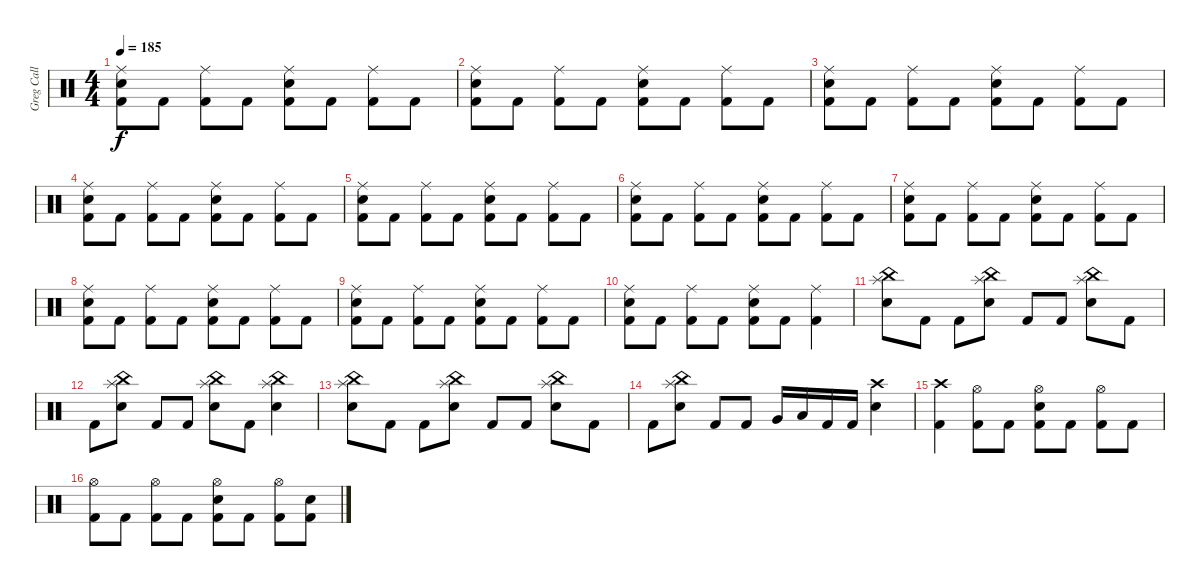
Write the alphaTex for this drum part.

\track ("Greg Call (Drums)" "Greg Call ") {instrument percussion}
\staff {score}
\articulation defaults
\ts (4 4)
\tempo 185
\clef neutral
\ks c
("Ride (middle)" "Snare (hit) 2" "Kick (hit) 2").8{dy f} "Kick (hit) 2".8 ("Ride (middle)" "Kick (hit) 2").8 "Kick (hit) 2".8 ("Ride (middle)" "Snare (hit) 2" "Kick (hit) 2").8 "Kick (hit) 2".8 ("Ride (middle)" "Kick (hit) 2").8 "Kick (hit) 2".8 |
("Ride (middle)" "Snare (hit) 2" "Kick (hit) 2").8 "Kick (hit) 2".8 ("Ride (middle)" "Kick (hit) 2").8 "Kick (hit) 2".8 ("Ride (middle)" "Snare (hit) 2" "Kick (hit) 2").8 "Kick (hit) 2".8 ("Ride (middle)" "Kick (hit) 2").8 "Kick (hit) 2".8 |
("Ride (middle)" "Snare (hit) 2" "Kick (hit) 2").8 "Kick (hit) 2".8 ("Ride (middle)" "Kick (hit) 2").8 "Kick (hit) 2".8 ("Ride (middle)" "Snare (hit) 2" "Kick (hit) 2").8 "Kick (hit) 2".8 ("Ride (middle)" "Kick (hit) 2").8 "Kick (hit) 2".8 |
("Ride (middle)" "Snare (hit) 2" "Kick (hit) 2").8 "Kick (hit) 2".8 ("Ride (middle)" "Kick (hit) 2").8 "Kick (hit) 2".8 ("Ride (middle)" "Snare (hit) 2" "Kick (hit) 2").8 "Kick (hit) 2".8 ("Ride (middle)" "Kick (hit) 2").8 "Kick (hit) 2".8 |
("Ride (middle)" "Snare (hit) 2" "Kick (hit) 2").8 "Kick (hit) 2".8 ("Ride (middle)" "Kick (hit) 2").8 "Kick (hit) 2".8 ("Ride (middle)" "Snare (hit) 2" "Kick (hit) 2").8 "Kick (hit) 2".8 ("Ride (middle)" "Kick (hit) 2").8 "Kick (hit) 2".8 |
("Ride (middle)" "Snare (hit) 2" "Kick (hit) 2").8 "Kick (hit) 2".8 ("Ride (middle)" "Kick (hit) 2").8 "Kick (hit) 2".8 ("Ride (middle)" "Snare (hit) 2" "Kick (hit) 2").8 "Kick (hit) 2".8 ("Ride (middle)" "Kick (hit) 2").8 "Kick (hit) 2".8 |
("Ride (middle)" "Snare (hit) 2" "Kick (hit) 2").8 "Kick (hit) 2".8 ("Ride (middle)" "Kick (hit) 2").8 "Kick (hit) 2".8 ("Ride (middle)" "Snare (hit) 2" "Kick (hit) 2").8 "Kick (hit) 2".8 ("Ride (middle)" "Kick (hit) 2").8 "Kick (hit) 2".8 |
("Ride (middle)" "Snare (hit) 2" "Kick (hit) 2").8 "Kick (hit) 2".8 ("Ride (middle)" "Kick (hit) 2").8 "Kick (hit) 2".8 ("Ride (middle)" "Snare (hit) 2" "Kick (hit) 2").8 "Kick (hit) 2".8 ("Ride (middle)" "Kick (hit) 2").8 "Kick (hit) 2".8 |
("Ride (middle)" "Snare (hit) 2" "Kick (hit) 2").8 "Kick (hit) 2".8 ("Ride (middle)" "Kick (hit) 2").8 "Kick (hit) 2".8 ("Ride (middle)" "Snare (hit) 2" "Kick (hit) 2").8 "Kick (hit) 2".8 ("Ride (middle)" "Kick (hit) 2").8 "Kick (hit) 2".8 |
("Ride (middle)" "Snare (hit) 2" "Kick (hit) 2").8 "Kick (hit) 2".8 ("Ride (middle)" "Kick (hit) 2").8 "Kick (hit) 2".8 ("Ride (middle)" "Snare (hit) 2" "Kick (hit) 2").8 "Kick (hit) 2".8 ("Ride (middle)" "Kick (hit) 2").4 |
("Splash (hit)" "China (hit)" "Snare (hit) 2").8 "Kick (hit) 2".8 "Kick (hit) 2".8 ("Splash (hit)" "China (hit)" "Snare (hit) 2").8 "Kick (hit) 2".8 "Kick (hit) 2".8 ("Splash (hit)" "China (hit)" "Snare (hit) 2").8 "Kick (hit) 2".8 |
"Kick (hit) 2".8 ("Splash (hit)" "China (hit)" "Snare (hit) 2").8 "Kick (hit) 2".8 "Kick (hit) 2".8 ("Splash (hit)" "China (hit)" "Snare (hit) 2").8 "Kick (hit) 2".8 ("Splash (hit)" "China (hit)" "Snare (hit) 2").4 |
("Splash (hit)" "China (hit)" "Snare (hit) 2").8 "Kick (hit) 2".8 "Kick (hit) 2".8 ("Splash (hit)" "China (hit)" "Snare (hit) 2").8 "Kick (hit) 2".8 "Kick (hit) 2".8 ("Splash (hit)" "China (hit)" "Snare (hit) 2").8 "Kick (hit) 2".8 |
"Kick (hit) 2".8 ("Splash (hit)" "China (hit)" "Snare (hit) 2").8 "Kick (hit) 2".8 "Kick (hit) 2".8 "Very Low Tom (hit)".16 "Low Floor Tom (hit)".16 "Kick (hit) 2".16 "Kick (hit) 2".16 ("Crash high (hit)" "Snare (hit) 2").4 |
("Crash high (hit)" "Kick (hit) 2").4 ("Hi-Hat (open)" "Kick (hit) 2").8 "Kick (hit) 2".8 ("Snare (hit) 2" "Hi-Hat (open)" "Kick (hit) 2").8 "Kick (hit) 2".8 ("Hi-Hat (open)" "Kick (hit) 2").8 "Kick (hit) 2".8 |
("Hi-Hat (open)" "Kick (hit) 2").8 "Kick (hit) 2".8 ("Hi-Hat (open)" "Kick (hit) 2").8 "Kick (hit) 2".8 ("Snare (hit) 2" "Hi-Hat (open)" "Kick (hit) 2").8 "Kick (hit) 2".8 ("Hi-Hat (open)" "Kick (hit) 2").8 ("Snare (hit) 2" "Kick (hit) 2").8
